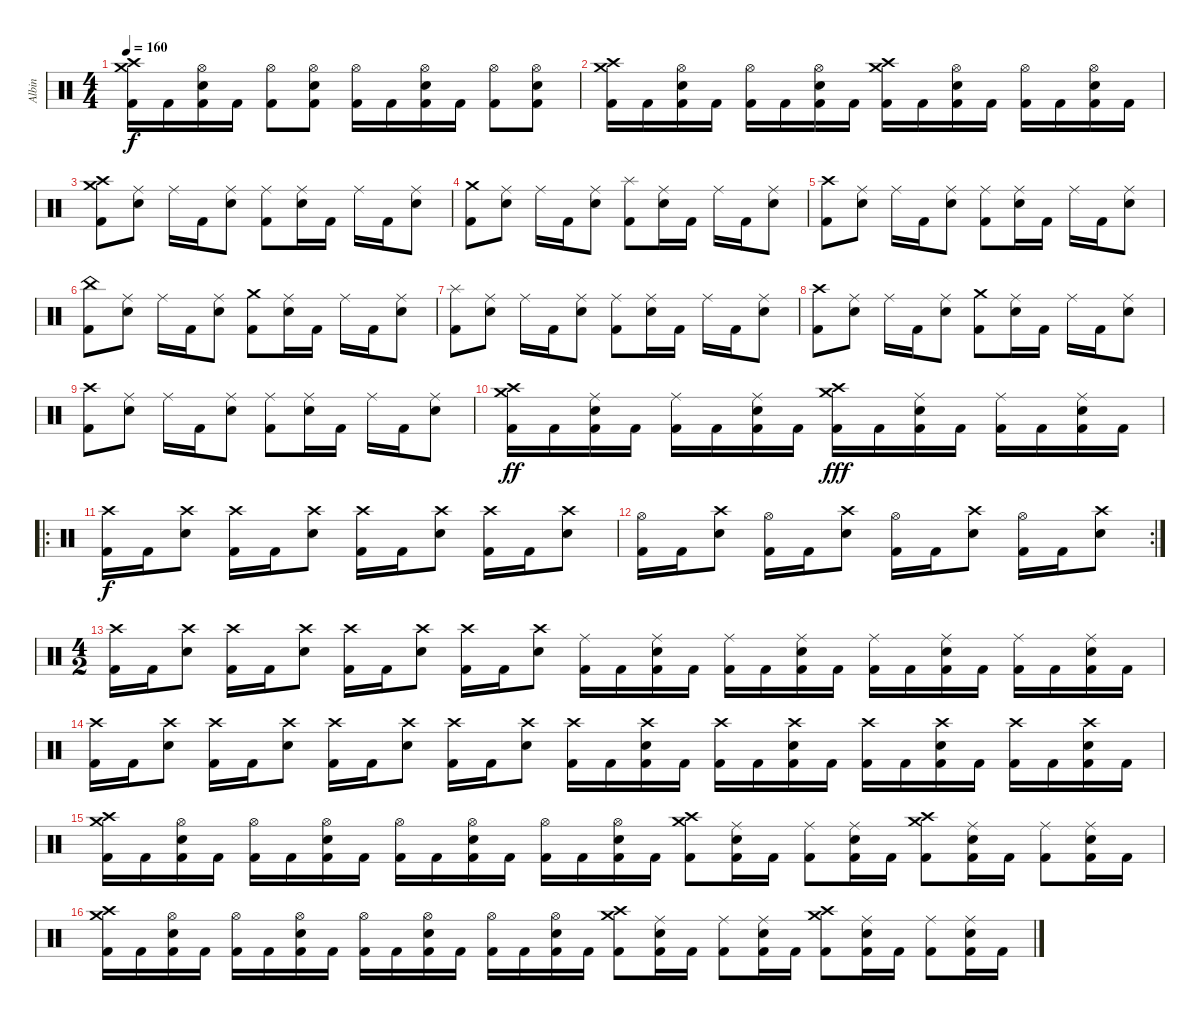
\track ("Albin" "Albin") {instrument percussion}
\staff {score}
\articulation defaults
\ts (4 4)
\tempo 160
\clef neutral
\ks c
("Kick (hit) 2" "Crash medium (hit)" "Crash high (hit)").16{dy f} "Kick (hit) 2".16 ("Kick (hit) 2" "Electric Snare (hit)" "Hi-Hat (open)").16 "Kick (hit) 2".16 ("Kick (hit) 2" "Hi-Hat (open)").8 ("Kick (hit) 2" "Electric Snare (hit)" "Hi-Hat (open)").8 ("Kick (hit) 2" "Hi-Hat (open)").16 "Kick (hit) 2".16 ("Kick (hit) 2" "Electric Snare (hit)" "Hi-Hat (open)").16 "Kick (hit) 2".16 ("Kick (hit) 2" "Hi-Hat (open)").8 ("Kick (hit) 2" "Electric Snare (hit)" "Hi-Hat (open)").8 |
("Kick (hit) 2" "Crash high (hit)" "Crash medium (hit)").16 "Kick (hit) 2".16 ("Kick (hit) 2" "Electric Snare (hit)" "Hi-Hat (open)").16 "Kick (hit) 2".16 ("Kick (hit) 2" "Hi-Hat (open)").16 "Kick (hit) 2".16 ("Kick (hit) 2" "Electric Snare (hit)" "Hi-Hat (open)").16 "Kick (hit) 2".16 ("Kick (hit) 2" "Crash medium (hit)" "Crash high (hit)").16 "Kick (hit) 2".16 ("Kick (hit) 2" "Electric Snare (hit)" "Hi-Hat (open)").16 "Kick (hit) 2".16 ("Kick (hit) 2" "Hi-Hat (open)").16 "Kick (hit) 2".16 ("Kick (hit) 2" "Electric Snare (hit)" "Hi-Hat (open)").16 "Kick (hit) 2".16 |
("Kick (hit) 2" "Crash high (hit)" "Crash medium (hit)").8 ("Electric Snare (hit)" "Ride (middle)").8 "Ride (middle)".16 "Kick (hit) 2".16 ("Electric Snare (hit)" "Ride (middle)").8 ("Kick (hit) 2" "Ride (middle)").8 ("Electric Snare (hit)" "Ride (middle)").16 "Kick (hit) 2".16 "Ride (middle)".16 "Kick (hit) 2".16 ("Electric Snare (hit)" "Ride (middle)").8 |
("Kick (hit) 2" "Crash medium (hit)").8 ("Electric Snare (hit)" "Ride (middle)").8 "Ride (middle)".16 "Kick (hit) 2".16 ("Electric Snare (hit)" "Ride (middle)").8 ("Kick (hit) 2" "Splash (hit)").8 ("Electric Snare (hit)" "Ride (middle)").16 "Kick (hit) 2".16 "Ride (middle)".16 "Kick (hit) 2".16 ("Electric Snare (hit)" "Ride (middle)").8 |
("Kick (hit) 2" "Crash high (hit)").8 ("Electric Snare (hit)" "Ride (middle)").8 "Ride (middle)".16 "Kick (hit) 2".16 ("Electric Snare (hit)" "Ride (middle)").8 ("Kick (hit) 2" "Ride (middle)").8 ("Electric Snare (hit)" "Ride (middle)").16 "Kick (hit) 2".16 "Ride (middle)".16 "Kick (hit) 2".16 ("Electric Snare (hit)" "Ride (middle)").8 |
("Kick (hit) 2" "China (hit)").8 ("Electric Snare (hit)" "Ride (middle)").8 "Ride (middle)".16 "Kick (hit) 2".16 ("Electric Snare (hit)" "Ride (middle)").8 ("Kick (hit) 2" "Crash medium (hit)").8 ("Electric Snare (hit)" "Ride (middle)").16 "Kick (hit) 2".16 "Ride (middle)".16 "Kick (hit) 2".16 ("Electric Snare (hit)" "Ride (middle)").8 |
("Kick (hit) 2" "Splash (hit)").8 ("Electric Snare (hit)" "Ride (middle)").8 "Ride (middle)".16 "Kick (hit) 2".16 ("Electric Snare (hit)" "Ride (middle)").8 ("Kick (hit) 2" "Ride (middle)").8 ("Electric Snare (hit)" "Ride (middle)").16 "Kick (hit) 2".16 "Ride (middle)".16 "Kick (hit) 2".16 ("Electric Snare (hit)" "Ride (middle)").8 |
("Kick (hit) 2" "Crash high (hit)").8 ("Electric Snare (hit)" "Ride (middle)").8 "Ride (middle)".16 "Kick (hit) 2".16 ("Electric Snare (hit)" "Ride (middle)").8 ("Kick (hit) 2" "Crash medium (hit)").8 ("Electric Snare (hit)" "Ride (middle)").16 "Kick (hit) 2".16 "Ride (middle)".16 "Kick (hit) 2".16 ("Electric Snare (hit)" "Ride (middle)").8 |
("Kick (hit) 2" "Crash high (hit)").8 ("Electric Snare (hit)" "Ride (middle)").8 "Ride (middle)".16 "Kick (hit) 2".16 ("Electric Snare (hit)" "Ride (middle)").8 ("Kick (hit) 2" "Ride (middle)").8 ("Electric Snare (hit)" "Ride (middle)").16 "Kick (hit) 2".16 "Ride (middle)".16 "Kick (hit) 2".16 ("Electric Snare (hit)" "Ride (middle)").8 |
("Kick (hit) 2" "Crash medium (hit)" "Crash high (hit)").16{dy ff} "Kick (hit) 2".16 ("Kick (hit) 2" "Electric Snare (hit)" "Ride (middle)").16 "Kick (hit) 2".16 ("Kick (hit) 2" "Ride (middle)").16 "Kick (hit) 2".16 ("Kick (hit) 2" "Electric Snare (hit)" "Ride (middle)").16 "Kick (hit) 2".16 ("Kick (hit) 2" "Crash high (hit)" "Crash medium (hit)").16{dy fff} "Kick (hit) 2".16 ("Kick (hit) 2" "Electric Snare (hit)" "Ride (middle)").16 "Kick (hit) 2".16 ("Kick (hit) 2" "Ride (middle)").16 "Kick (hit) 2".16 ("Kick (hit) 2" "Electric Snare (hit)" "Ride (middle)").16 "Kick (hit) 2".16 |
\ro
("Kick (hit) 2" "Crash high (hit)").16{dy f} "Kick (hit) 2".16 ("Electric Snare (hit)" "Crash high (hit)").8 ("Kick (hit) 2" "Crash high (hit)").16 "Kick (hit) 2".16 ("Electric Snare (hit)" "Crash high (hit)").8 ("Kick (hit) 2" "Crash high (hit)").16 "Kick (hit) 2".16 ("Electric Snare (hit)" "Crash high (hit)").8 ("Kick (hit) 2" "Crash high (hit)").16 "Kick (hit) 2".16 ("Electric Snare (hit)" "Crash high (hit)").8 |
\rc 2
("Kick (hit) 2" "Hi-Hat (open)").16 "Kick (hit) 2".16 ("Electric Snare (hit)" "Crash high (hit)").8 ("Kick (hit) 2" "Hi-Hat (open)").16 "Kick (hit) 2".16 ("Electric Snare (hit)" "Crash high (hit)").8 ("Kick (hit) 2" "Hi-Hat (open)").16 "Kick (hit) 2".16 ("Electric Snare (hit)" "Crash high (hit)").8 ("Kick (hit) 2" "Hi-Hat (open)").16 "Kick (hit) 2".16 ("Electric Snare (hit)" "Crash high (hit)").8 |
\ts (4 2)
("Kick (hit) 2" "Crash high (hit)").16 "Kick (hit) 2".16 ("Electric Snare (hit)" "Crash high (hit)").8 ("Kick (hit) 2" "Crash high (hit)").16 "Kick (hit) 2".16 ("Electric Snare (hit)" "Crash high (hit)").8 ("Kick (hit) 2" "Crash high (hit)").16 "Kick (hit) 2".16 ("Electric Snare (hit)" "Crash high (hit)").8 ("Kick (hit) 2" "Crash high (hit)").16 "Kick (hit) 2".16 ("Electric Snare (hit)" "Crash high (hit)").8 ("Kick (hit) 2" "Ride (middle)").16 "Kick (hit) 2".16 ("Kick (hit) 2" "Electric Snare (hit)" "Ride (middle)").16 "Kick (hit) 2".16 ("Kick (hit) 2" "Ride (middle)").16 "Kick (hit) 2".16 ("Kick (hit) 2" "Electric Snare (hit)" "Ride (middle)").16 "Kick (hit) 2".16 ("Kick (hit) 2" "Ride (middle)").16 "Kick (hit) 2".16 ("Kick (hit) 2" "Electric Snare (hit)" "Ride (middle)").16 "Kick (hit) 2".16 ("Kick (hit) 2" "Ride (middle)").16 "Kick (hit) 2".16 ("Kick (hit) 2" "Electric Snare (hit)" "Ride (middle)").16 "Kick (hit) 2".16 |
("Kick (hit) 2" "Crash high (hit)").16 "Kick (hit) 2".16 ("Electric Snare (hit)" "Crash high (hit)").8 ("Kick (hit) 2" "Crash high (hit)").16 "Kick (hit) 2".16 ("Electric Snare (hit)" "Crash high (hit)").8 ("Kick (hit) 2" "Crash high (hit)").16 "Kick (hit) 2".16 ("Electric Snare (hit)" "Crash high (hit)").8 ("Kick (hit) 2" "Crash high (hit)").16 "Kick (hit) 2".16 ("Electric Snare (hit)" "Crash high (hit)").8 ("Kick (hit) 2" "Crash high (hit)").16 "Kick (hit) 2".16 ("Kick (hit) 2" "Electric Snare (hit)" "Crash high (hit)").16 "Kick (hit) 2".16 ("Kick (hit) 2" "Crash high (hit)").16 "Kick (hit) 2".16 ("Kick (hit) 2" "Electric Snare (hit)" "Crash high (hit)").16 "Kick (hit) 2".16 ("Kick (hit) 2" "Crash high (hit)").16 "Kick (hit) 2".16 ("Kick (hit) 2" "Electric Snare (hit)" "Crash high (hit)").16 "Kick (hit) 2".16 ("Kick (hit) 2" "Crash high (hit)").16 "Kick (hit) 2".16 ("Kick (hit) 2" "Electric Snare (hit)" "Crash high (hit)").16 "Kick (hit) 2".16 |
("Kick (hit) 2" "Crash high (hit)" "Crash medium (hit)").16 "Kick (hit) 2".16 ("Kick (hit) 2" "Electric Snare (hit)" "Hi-Hat (open)").16 "Kick (hit) 2".16 ("Kick (hit) 2" "Hi-Hat (open)").16 "Kick (hit) 2".16 ("Kick (hit) 2" "Electric Snare (hit)" "Hi-Hat (open)").16 "Kick (hit) 2".16 ("Kick (hit) 2" "Hi-Hat (open)").16 "Kick (hit) 2".16 ("Kick (hit) 2" "Electric Snare (hit)" "Hi-Hat (open)").16 "Kick (hit) 2".16 ("Kick (hit) 2" "Hi-Hat (open)").16 "Kick (hit) 2".16 ("Kick (hit) 2" "Electric Snare (hit)" "Hi-Hat (open)").16 "Kick (hit) 2".16 ("Kick (hit) 2" "Crash medium (hit)" "Crash high (hit)").8 ("Kick (hit) 2" "Electric Snare (hit)" "Ride (middle)").16 "Kick (hit) 2".16 ("Kick (hit) 2" "Ride (middle)").8 ("Kick (hit) 2" "Electric Snare (hit)" "Ride (middle)").16 "Kick (hit) 2".16 ("Kick (hit) 2" "Crash high (hit)" "Crash medium (hit)").8 ("Kick (hit) 2" "Electric Snare (hit)" "Ride (middle)").16 "Kick (hit) 2".16 ("Kick (hit) 2" "Ride (middle)").8 ("Kick (hit) 2" "Electric Snare (hit)" "Ride (middle)").16 "Kick (hit) 2".16 |
("Kick (hit) 2" "Crash high (hit)" "Crash medium (hit)").16 "Kick (hit) 2".16 ("Kick (hit) 2" "Electric Snare (hit)" "Hi-Hat (open)").16 "Kick (hit) 2".16 ("Kick (hit) 2" "Hi-Hat (open)").16 "Kick (hit) 2".16 ("Kick (hit) 2" "Electric Snare (hit)" "Hi-Hat (open)").16 "Kick (hit) 2".16 ("Kick (hit) 2" "Hi-Hat (open)").16 "Kick (hit) 2".16 ("Kick (hit) 2" "Electric Snare (hit)" "Hi-Hat (open)").16 "Kick (hit) 2".16 ("Kick (hit) 2" "Hi-Hat (open)").16 "Kick (hit) 2".16 ("Kick (hit) 2" "Electric Snare (hit)" "Hi-Hat (open)").16 "Kick (hit) 2".16 ("Kick (hit) 2" "Crash medium (hit)" "Crash high (hit)").8 ("Kick (hit) 2" "Electric Snare (hit)" "Ride (middle)").16 "Kick (hit) 2".16 ("Kick (hit) 2" "Ride (middle)").8 ("Kick (hit) 2" "Electric Snare (hit)" "Ride (middle)").16 "Kick (hit) 2".16 ("Kick (hit) 2" "Crash high (hit)" "Crash medium (hit)").8 ("Kick (hit) 2" "Electric Snare (hit)" "Ride (middle)").16 "Kick (hit) 2".16 ("Kick (hit) 2" "Ride (middle)").8 ("Kick (hit) 2" "Electric Snare (hit)" "Ride (middle)").16 "Kick (hit) 2".16
